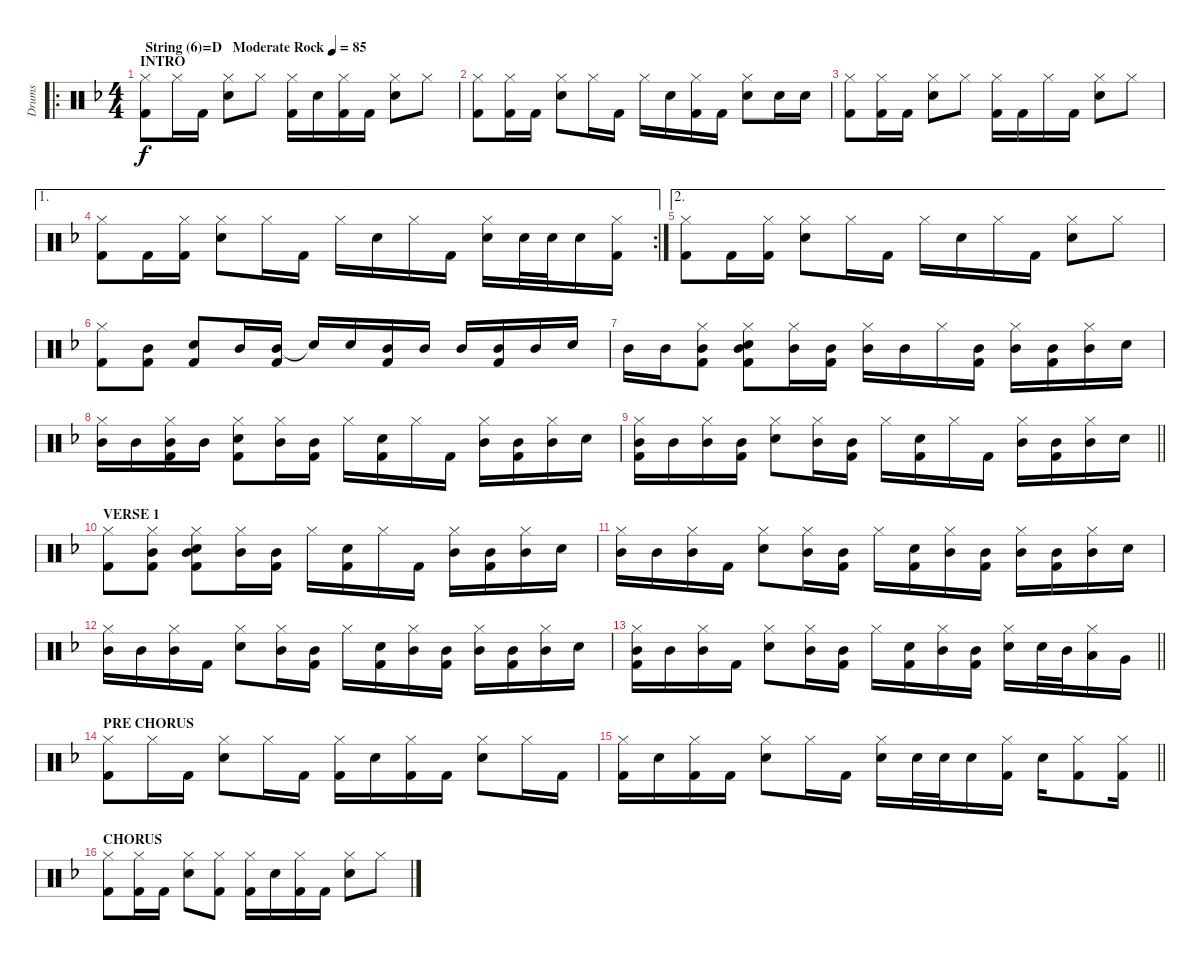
\track ("Drums" "Drums") {instrument percussion}
\staff {score}
\articulation defaults
\ro
\ts (4 4)
\section ("" "INTRO")
\tempo (85 "String (6)=D   Moderate Rock")
\clef neutral
\ks dminor
("Hi-Hat (closed)" "Kick (hit) 2").8{dy f} "Hi-Hat (closed)".16 "Kick (hit) 2".16 ("Hi-Hat (closed)" "Electric Snare (hit)").8 "Hi-Hat (closed)".8 ("Hi-Hat (closed)" "Kick (hit) 2").16 "Electric Snare (hit)".16 ("Hi-Hat (closed)" "Kick (hit) 2").16 "Kick (hit) 2".16 ("Hi-Hat (closed)" "Electric Snare (hit)").8 "Hi-Hat (closed)".8 |
("Hi-Hat (closed)" "Kick (hit) 2").8 ("Hi-Hat (closed)" "Kick (hit) 2").16 "Kick (hit) 2".16 ("Hi-Hat (closed)" "Electric Snare (hit)").8 "Hi-Hat (closed)".16 "Kick (hit) 2".16 "Hi-Hat (closed)".16 "Electric Snare (hit)".16 ("Hi-Hat (closed)" "Kick (hit) 2").16 "Kick (hit) 2".16 ("Hi-Hat (closed)" "Electric Snare (hit)").8 "Electric Snare (hit)".16 "Electric Snare (hit)".16 |
("Hi-Hat (closed)" "Kick (hit) 2").8 ("Hi-Hat (closed)" "Kick (hit) 2").16 "Kick (hit) 2".16 ("Hi-Hat (closed)" "Electric Snare (hit)").8 "Hi-Hat (closed)".8 ("Hi-Hat (closed)" "Kick (hit) 2").16 "Kick (hit) 2".16 "Hi-Hat (closed)".16 "Kick (hit) 2".16 ("Hi-Hat (closed)" "Electric Snare (hit)").8 "Hi-Hat (closed)".8 |
\ae 1
\rc 2
("Hi-Hat (closed)" "Kick (hit) 2").8 "Kick (hit) 2".16 ("Hi-Hat (closed)" "Kick (hit) 2").16 ("Hi-Hat (closed)" "Electric Snare (hit)").8 "Hi-Hat (closed)".16 "Kick (hit) 2".16 "Hi-Hat (closed)".16 "Electric Snare (hit)".16 "Hi-Hat (closed)".16 "Kick (hit) 2".16 ("Hi-Hat (closed)" "Electric Snare (hit)").16 "Electric Snare (hit)".32 "Electric Snare (hit)".32 "Electric Snare (hit)".16 ("Hi-Hat (closed)" "Kick (hit) 2").16 |
\ae 2
("Hi-Hat (closed)" "Kick (hit) 2").8 "Kick (hit) 2".16 ("Hi-Hat (closed)" "Kick (hit) 2").16 ("Hi-Hat (closed)" "Electric Snare (hit)").8 "Hi-Hat (closed)".16 "Kick (hit) 2".16 "Hi-Hat (closed)".16 "Electric Snare (hit)".16 "Hi-Hat (closed)".16 "Kick (hit) 2".16 ("Hi-Hat (closed)" "Electric Snare (hit)").8 "Hi-Hat (closed)".8 |
("Hi-Hat (closed)" "Kick (hit) 2").8 ("Mid Tom (hit)" "Kick (hit) 2").8 ("Electric Snare (hit)" "Kick (hit) 2").8 "Mid Tom (hit)".16 ("Mid Tom (hit)" "Kick (hit) 2").16 "Snare (hit)"{t}.16 "Electric Snare (hit)".16 ("Mid Tom (hit)" "Kick (hit) 2").16 "Mid Tom (hit)".16 "Mid Tom (hit)".16 ("Mid Tom (hit)" "Kick (hit) 2").16 "Mid Tom (hit)".16 "Electric Snare (hit)".16 |
"Mid Tom (hit)".16 "Mid Tom (hit)".16 ("Hi-Hat (closed)" "Mid Tom (hit)" "Kick (hit) 2").8 ("Hi-Hat (closed)" "Mid Tom (hit)" "Electric Snare (hit)" "Kick (hit) 2").8 ("Hi-Hat (closed)" "Mid Tom (hit)").16 ("Mid Tom (hit)" "Kick (hit) 2").16 ("Hi-Hat (closed)" "Mid Tom (hit)").16 "Mid Tom (hit)".16 "Hi-Hat (closed)".16 ("Mid Tom (hit)" "Kick (hit) 2").16 ("Hi-Hat (closed)" "Mid Tom (hit)").16 ("Mid Tom (hit)" "Kick (hit) 2").16 ("Hi-Hat (closed)" "Mid Tom (hit)").16 "Electric Snare (hit)".16 |
("Hi-Hat (closed)" "Mid Tom (hit)").16 "Mid Tom (hit)".16 ("Hi-Hat (closed)" "Mid Tom (hit)" "Kick (hit) 2").16 "Mid Tom (hit)".16 ("Hi-Hat (closed)" "Electric Snare (hit)" "Kick (hit) 2").8 ("Hi-Hat (closed)" "Mid Tom (hit)").16 ("Mid Tom (hit)" "Kick (hit) 2").16 "Hi-Hat (closed)".16 ("Electric Snare (hit)" "Kick (hit) 2").16 "Hi-Hat (closed)".16 "Kick (hit) 2".16 ("Hi-Hat (closed)" "Mid Tom (hit)").16 ("Mid Tom (hit)" "Kick (hit) 2").16 ("Hi-Hat (closed)" "Mid Tom (hit)").16 "Electric Snare (hit)".16 |
\barLineRight lightlight
("Hi-Hat (closed)" "Mid Tom (hit)" "Kick (hit) 2").16 "Mid Tom (hit)".16 ("Hi-Hat (closed)" "Mid Tom (hit)").16 ("Mid Tom (hit)" "Kick (hit) 2").16 ("Hi-Hat (closed)" "Electric Snare (hit)").8 ("Hi-Hat (closed)" "Mid Tom (hit)").16 ("Mid Tom (hit)" "Kick (hit) 2").16 "Hi-Hat (closed)".16 ("Electric Snare (hit)" "Kick (hit) 2").16 "Hi-Hat (closed)".16 "Kick (hit) 2".16 ("Hi-Hat (closed)" "Mid Tom (hit)").16 ("Mid Tom (hit)" "Kick (hit) 2").16 ("Hi-Hat (closed)" "Mid Tom (hit)").16 "Electric Snare (hit)".16 |
\section ("" "VERSE 1")
("Hi-Hat (closed)" "Kick (hit) 2").8 ("Hi-Hat (closed)" "Mid Tom (hit)" "Kick (hit) 2").8 ("Hi-Hat (closed)" "Mid Tom (hit)" "Electric Snare (hit)" "Kick (hit) 2").8 ("Hi-Hat (closed)" "Mid Tom (hit)").16 ("Mid Tom (hit)" "Kick (hit) 2").16 "Hi-Hat (closed)".16 ("Electric Snare (hit)" "Kick (hit) 2").16 "Hi-Hat (closed)".16 "Kick (hit) 2".16 ("Hi-Hat (closed)" "Mid Tom (hit)").16 ("Mid Tom (hit)" "Kick (hit) 2").16 ("Hi-Hat (closed)" "Mid Tom (hit)").16 "Electric Snare (hit)".16 |
("Hi-Hat (closed)" "Mid Tom (hit)").16 "Mid Tom (hit)".16 ("Hi-Hat (closed)" "Mid Tom (hit)").16 "Kick (hit) 2".16 ("Hi-Hat (closed)" "Electric Snare (hit)").8 ("Hi-Hat (closed)" "Mid Tom (hit)").16 ("Mid Tom (hit)" "Kick (hit) 2").16 "Hi-Hat (closed)".16 ("Electric Snare (hit)" "Kick (hit) 2").16 ("Hi-Hat (closed)" "Mid Tom (hit)").16 ("Mid Tom (hit)" "Kick (hit) 2").16 ("Hi-Hat (closed)" "Mid Tom (hit)").16 ("Mid Tom (hit)" "Kick (hit) 2").16 ("Hi-Hat (closed)" "Mid Tom (hit)").16 "Electric Snare (hit)".16 |
("Hi-Hat (closed)" "Mid Tom (hit)").16 "Mid Tom (hit)".16 ("Hi-Hat (closed)" "Mid Tom (hit)").16 "Kick (hit) 2".16 ("Hi-Hat (closed)" "Electric Snare (hit)").8 ("Hi-Hat (closed)" "Mid Tom (hit)").16 ("Mid Tom (hit)" "Kick (hit) 2").16 "Hi-Hat (closed)".16 ("Electric Snare (hit)" "Kick (hit) 2").16 ("Hi-Hat (closed)" "Mid Tom (hit)").16 ("Mid Tom (hit)" "Kick (hit) 2").16 ("Hi-Hat (closed)" "Mid Tom (hit)").16 ("Mid Tom (hit)" "Kick (hit) 2").16 ("Hi-Hat (closed)" "Mid Tom (hit)").16 "Electric Snare (hit)".16 |
\barLineRight lightlight
("Hi-Hat (closed)" "Mid Tom (hit)" "Kick (hit) 2").16 "Mid Tom (hit)".16 ("Hi-Hat (closed)" "Mid Tom (hit)").16 "Kick (hit) 2".16 ("Hi-Hat (closed)" "Electric Snare (hit)").8 ("Hi-Hat (closed)" "Mid Tom (hit)").16 ("Mid Tom (hit)" "Kick (hit) 2").16 "Hi-Hat (closed)".16 ("Electric Snare (hit)" "Kick (hit) 2").16 ("Hi-Hat (closed)" "Mid Tom (hit)").16 ("Mid Tom (hit)" "Kick (hit) 2").16 ("Hi-Hat (closed)" "Electric Snare (hit)").16 "Electric Snare (hit)".32 "Mid Tom (hit)".32 ("Hi-Hat (closed)" "Low Tom (hit)").16 "Very Low Tom (hit)".16 |
\section ("" "PRE CHORUS")
("Hi-Hat (closed)" "Kick (hit) 2").8 "Hi-Hat (closed)".16 "Kick (hit) 2".16 ("Hi-Hat (closed)" "Electric Snare (hit)").8 "Hi-Hat (closed)".16 "Kick (hit) 2".16 ("Hi-Hat (closed)" "Kick (hit) 2").16 "Electric Snare (hit)".16 ("Hi-Hat (closed)" "Kick (hit) 2").16 "Kick (hit) 2".16 ("Hi-Hat (closed)" "Electric Snare (hit)").8 "Hi-Hat (closed)".16 "Kick (hit) 2".16 |
\barLineRight lightlight
("Hi-Hat (closed)" "Kick (hit) 2").16 "Electric Snare (hit)".16 ("Hi-Hat (closed)" "Kick (hit) 2").16 "Kick (hit) 2".16 ("Hi-Hat (closed)" "Electric Snare (hit)").8 "Hi-Hat (closed)".16 "Kick (hit) 2".16 ("Hi-Hat (closed)" "Electric Snare (hit)").16 "Electric Snare (hit)".32 "Electric Snare (hit)".32 "Electric Snare (hit)".16 ("Hi-Hat (closed)" "Kick (hit) 2").16 "Electric Snare (hit)".16 ("Hi-Hat (closed)" "Kick (hit) 2").8 ("Hi-Hat (closed)" "Kick (hit) 2").16 |
\section ("" "CHORUS")
("Hi-Hat (closed)" "Kick (hit) 2").8 ("Hi-Hat (closed)" "Kick (hit) 2").16 "Kick (hit) 2".16 ("Hi-Hat (closed)" "Electric Snare (hit)").8 ("Hi-Hat (closed)" "Kick (hit) 2").8 ("Hi-Hat (closed)" "Kick (hit) 2").16 "Electric Snare (hit)".16 ("Hi-Hat (closed)" "Kick (hit) 2").16 "Kick (hit) 2".16 ("Hi-Hat (closed)" "Electric Snare (hit)").8 "Hi-Hat (closed)".8
